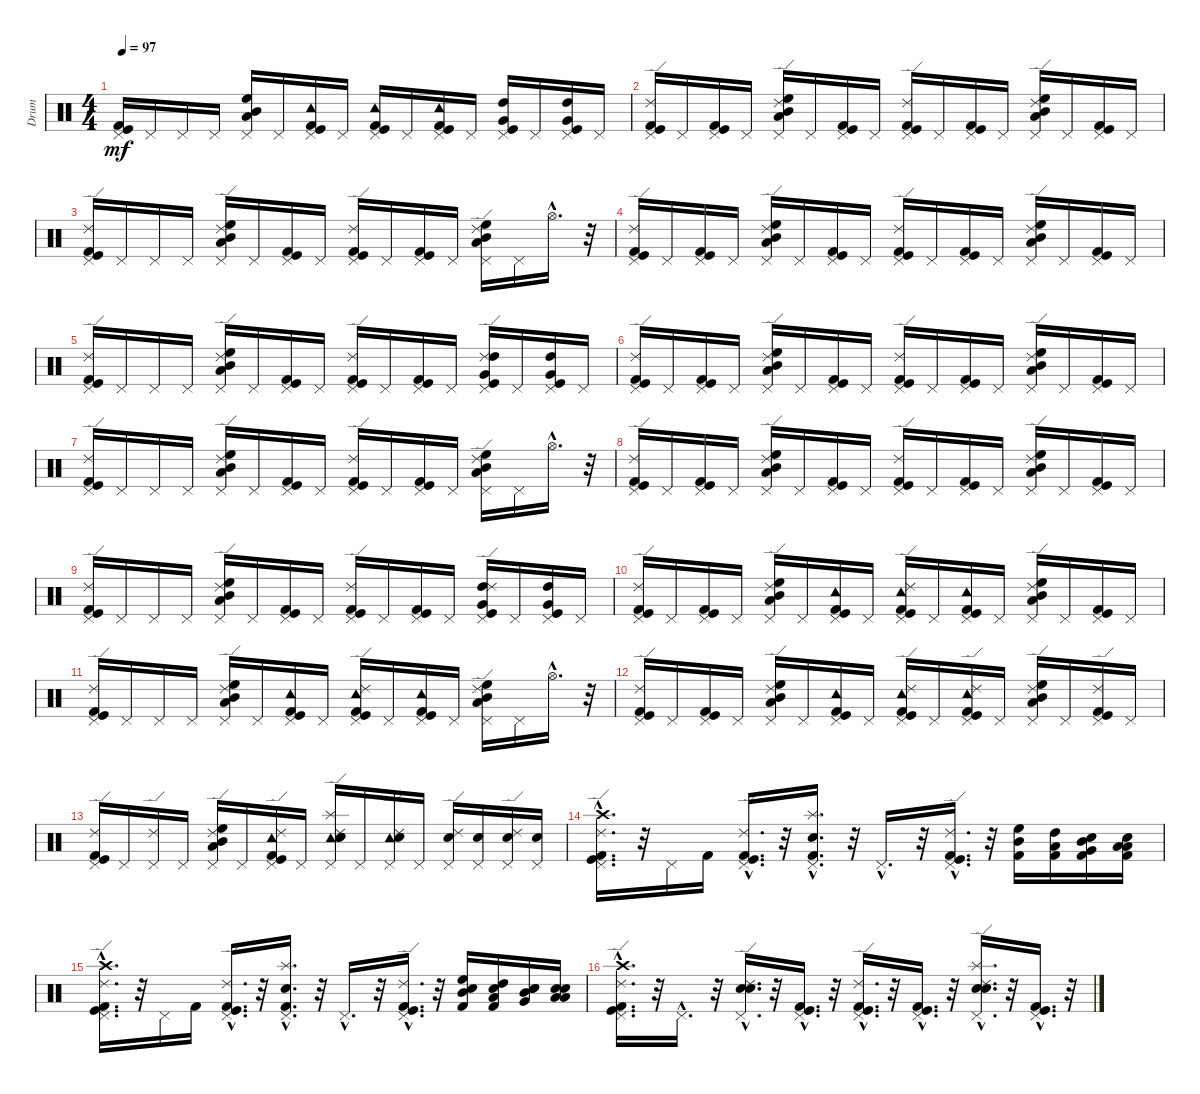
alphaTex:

\track ("Drum" "Drum") {instrument percussion}
\staff {score}
\articulation defaults
\ts (4 4)
\tempo 97
\clef neutral
\ks c
("Kick (hit) 2" "Kick (hit)" "Pedal Hi-Hat (hit)").16{dy mf} "Pedal Hi-Hat (hit)".16 "Pedal Hi-Hat (hit)".16 "Pedal Hi-Hat (hit)".16 ("Low Tom (hit)" "Mid Tom (hit)" "High Floor Tom (hit)" "Pedal Hi-Hat (hit)").16 "Pedal Hi-Hat (hit)".16 ("Kick (hit) 2" "Kick (hit)" "Pedal Hi-Hat (hit)" "Tambourine (hit)").16 "Pedal Hi-Hat (hit)".16 ("Kick (hit) 2" "Kick (hit)" "Pedal Hi-Hat (hit)" "Tambourine (hit)").16 "Pedal Hi-Hat (hit)".16 ("Kick (hit) 2" "Kick (hit)" "Pedal Hi-Hat (hit)" "Tambourine (hit)").16 "Pedal Hi-Hat (hit)".16 ("Pedal Hi-Hat (hit)" "High Tom (hit)" "Very Low Tom (hit)" "Kick (hit)").16 "Pedal Hi-Hat (hit)".16 ("Pedal Hi-Hat (hit)" "High Tom (hit)" "Very Low Tom (hit)" "Kick (hit)").16 "Pedal Hi-Hat (hit)".16 |
("Ride (edge) 2" "Kick (hit) 2" "Kick (hit)" "Pedal Hi-Hat (hit)").16 "Pedal Hi-Hat (hit)".16 ("Kick (hit) 2" "Kick (hit)" "Pedal Hi-Hat (hit)").16 "Pedal Hi-Hat (hit)".16 ("Ride (edge) 2" "Low Tom (hit)" "Mid Tom (hit)" "High Floor Tom (hit)" "Pedal Hi-Hat (hit)").16 "Pedal Hi-Hat (hit)".16 ("Kick (hit) 2" "Kick (hit)" "Pedal Hi-Hat (hit)").16 "Pedal Hi-Hat (hit)".16 ("Ride (edge) 2" "Kick (hit) 2" "Kick (hit)" "Pedal Hi-Hat (hit)").16 "Pedal Hi-Hat (hit)".16 ("Kick (hit) 2" "Kick (hit)" "Pedal Hi-Hat (hit)").16 "Pedal Hi-Hat (hit)".16 ("Ride (edge) 2" "Low Tom (hit)" "High Floor Tom (hit)" "Mid Tom (hit)" "Pedal Hi-Hat (hit)").16 "Pedal Hi-Hat (hit)".16 ("Kick (hit)" "Kick (hit) 2" "Pedal Hi-Hat (hit)").16 "Pedal Hi-Hat (hit)".16 |
("Ride (edge) 2" "Pedal Hi-Hat (hit)" "Kick (hit)" "Kick (hit) 2").16 "Pedal Hi-Hat (hit)".16 "Pedal Hi-Hat (hit)".16 "Pedal Hi-Hat (hit)".16 ("Ride (edge) 2" "Pedal Hi-Hat (hit)" "High Floor Tom (hit)" "Mid Tom (hit)" "Low Tom (hit)").16 "Pedal Hi-Hat (hit)".16 ("Pedal Hi-Hat (hit)" "Kick (hit)" "Kick (hit) 2").16 "Pedal Hi-Hat (hit)".16 ("Ride (edge) 2" "Pedal Hi-Hat (hit)" "Kick (hit)" "Kick (hit) 2").16 "Pedal Hi-Hat (hit)".16 ("Pedal Hi-Hat (hit)" "Kick (hit)" "Kick (hit) 2").16 "Pedal Hi-Hat (hit)".16 ("Ride (edge) 2" "Pedal Hi-Hat (hit)" "Mid Tom (hit)" "High Floor Tom (hit)" "Low Tom (hit)").16 "Pedal Hi-Hat (hit)".16 "Hi-Hat (open)"{hac}.16{d} r.32 |
("Ride (edge) 2" "Pedal Hi-Hat (hit)" "Kick (hit)" "Kick (hit) 2").16 "Pedal Hi-Hat (hit)".16 ("Pedal Hi-Hat (hit)" "Kick (hit)" "Kick (hit) 2").16 "Pedal Hi-Hat (hit)".16 ("Ride (edge) 2" "Pedal Hi-Hat (hit)" "High Floor Tom (hit)" "Mid Tom (hit)" "Low Tom (hit)").16 "Pedal Hi-Hat (hit)".16 ("Pedal Hi-Hat (hit)" "Kick (hit)" "Kick (hit) 2").16 "Pedal Hi-Hat (hit)".16 ("Ride (edge) 2" "Pedal Hi-Hat (hit)" "Kick (hit)" "Kick (hit) 2").16 "Pedal Hi-Hat (hit)".16 ("Pedal Hi-Hat (hit)" "Kick (hit)" "Kick (hit) 2").16 "Pedal Hi-Hat (hit)".16 ("Ride (edge) 2" "Pedal Hi-Hat (hit)" "Mid Tom (hit)" "High Floor Tom (hit)" "Low Tom (hit)").16 "Pedal Hi-Hat (hit)".16 ("Pedal Hi-Hat (hit)" "Kick (hit) 2" "Kick (hit)").16 "Pedal Hi-Hat (hit)".16 |
("Ride (edge) 2" "Kick (hit) 2" "Kick (hit)" "Pedal Hi-Hat (hit)").16 "Pedal Hi-Hat (hit)".16 "Pedal Hi-Hat (hit)".16 "Pedal Hi-Hat (hit)".16 ("Ride (edge) 2" "Low Tom (hit)" "Mid Tom (hit)" "High Floor Tom (hit)" "Pedal Hi-Hat (hit)").16 "Pedal Hi-Hat (hit)".16 ("Kick (hit) 2" "Kick (hit)" "Pedal Hi-Hat (hit)").16 "Pedal Hi-Hat (hit)".16 ("Ride (edge) 2" "Kick (hit) 2" "Kick (hit)" "Pedal Hi-Hat (hit)").16 "Pedal Hi-Hat (hit)".16 ("Kick (hit) 2" "Kick (hit)" "Pedal Hi-Hat (hit)").16 "Pedal Hi-Hat (hit)".16 ("Ride (edge) 2" "Pedal Hi-Hat (hit)" "High Tom (hit)" "Very Low Tom (hit)" "Kick (hit)").16 "Pedal Hi-Hat (hit)".16 ("Pedal Hi-Hat (hit)" "High Tom (hit)" "Very Low Tom (hit)" "Kick (hit)").16 "Pedal Hi-Hat (hit)".16 |
("Pedal Hi-Hat (hit)" "Kick (hit)" "Kick (hit) 2" "Ride (edge) 2").16 "Pedal Hi-Hat (hit)".16 ("Pedal Hi-Hat (hit)" "Kick (hit)" "Kick (hit) 2").16 "Pedal Hi-Hat (hit)".16 ("Pedal Hi-Hat (hit)" "High Floor Tom (hit)" "Mid Tom (hit)" "Low Tom (hit)" "Ride (edge) 2").16 "Pedal Hi-Hat (hit)".16 ("Pedal Hi-Hat (hit)" "Kick (hit)" "Kick (hit) 2").16 "Pedal Hi-Hat (hit)".16 ("Pedal Hi-Hat (hit)" "Kick (hit)" "Kick (hit) 2" "Ride (edge) 2").16 "Pedal Hi-Hat (hit)".16 ("Pedal Hi-Hat (hit)" "Kick (hit)" "Kick (hit) 2").16 "Pedal Hi-Hat (hit)".16 ("Ride (edge) 2" "Pedal Hi-Hat (hit)" "Mid Tom (hit)" "High Floor Tom (hit)" "Low Tom (hit)").16 "Pedal Hi-Hat (hit)".16 ("Pedal Hi-Hat (hit)" "Kick (hit) 2" "Kick (hit)").16 "Pedal Hi-Hat (hit)".16 |
("Kick (hit) 2" "Kick (hit)" "Pedal Hi-Hat (hit)" "Ride (edge) 2").16 "Pedal Hi-Hat (hit)".16 "Pedal Hi-Hat (hit)".16 "Pedal Hi-Hat (hit)".16 ("Low Tom (hit)" "Mid Tom (hit)" "High Floor Tom (hit)" "Pedal Hi-Hat (hit)" "Ride (edge) 2").16 "Pedal Hi-Hat (hit)".16 ("Kick (hit) 2" "Kick (hit)" "Pedal Hi-Hat (hit)").16 "Pedal Hi-Hat (hit)".16 ("Kick (hit) 2" "Kick (hit)" "Pedal Hi-Hat (hit)" "Ride (edge) 2").16 "Pedal Hi-Hat (hit)".16 ("Kick (hit) 2" "Kick (hit)" "Pedal Hi-Hat (hit)").16 "Pedal Hi-Hat (hit)".16 ("Low Tom (hit)" "High Floor Tom (hit)" "Mid Tom (hit)" "Pedal Hi-Hat (hit)" "Ride (edge) 2").16 "Pedal Hi-Hat (hit)".16 "Hi-Hat (open)"{hac}.16{d} r.32 |
("Kick (hit) 2" "Kick (hit)" "Pedal Hi-Hat (hit)" "Ride (edge) 2").16 "Pedal Hi-Hat (hit)".16 ("Kick (hit) 2" "Kick (hit)" "Pedal Hi-Hat (hit)").16 "Pedal Hi-Hat (hit)".16 ("Low Tom (hit)" "Mid Tom (hit)" "High Floor Tom (hit)" "Pedal Hi-Hat (hit)" "Ride (edge) 2").16 "Pedal Hi-Hat (hit)".16 ("Kick (hit) 2" "Kick (hit)" "Pedal Hi-Hat (hit)").16 "Pedal Hi-Hat (hit)".16 ("Kick (hit) 2" "Kick (hit)" "Pedal Hi-Hat (hit)" "Ride (edge) 2").16 "Pedal Hi-Hat (hit)".16 ("Kick (hit) 2" "Kick (hit)" "Pedal Hi-Hat (hit)").16 "Pedal Hi-Hat (hit)".16 ("Low Tom (hit)" "High Floor Tom (hit)" "Mid Tom (hit)" "Pedal Hi-Hat (hit)" "Ride (edge) 2").16 "Pedal Hi-Hat (hit)".16 ("Kick (hit)" "Kick (hit) 2" "Pedal Hi-Hat (hit)").16 "Pedal Hi-Hat (hit)".16 |
("Pedal Hi-Hat (hit)" "Kick (hit)" "Kick (hit) 2" "Ride (edge) 2").16 "Pedal Hi-Hat (hit)".16 "Pedal Hi-Hat (hit)".16 "Pedal Hi-Hat (hit)".16 ("Pedal Hi-Hat (hit)" "High Floor Tom (hit)" "Mid Tom (hit)" "Low Tom (hit)" "Ride (edge) 2").16 "Pedal Hi-Hat (hit)".16 ("Pedal Hi-Hat (hit)" "Kick (hit)" "Kick (hit) 2").16 "Pedal Hi-Hat (hit)".16 ("Pedal Hi-Hat (hit)" "Kick (hit)" "Kick (hit) 2" "Ride (edge) 2").16 "Pedal Hi-Hat (hit)".16 ("Pedal Hi-Hat (hit)" "Kick (hit)" "Kick (hit) 2").16 "Pedal Hi-Hat (hit)".16 ("Kick (hit)" "Very Low Tom (hit)" "High Tom (hit)" "Pedal Hi-Hat (hit)" "Ride (edge) 2").16 "Pedal Hi-Hat (hit)".16 ("Kick (hit)" "Very Low Tom (hit)" "High Tom (hit)" "Pedal Hi-Hat (hit)").16 "Pedal Hi-Hat (hit)".16 |
("Ride (edge) 2" "Kick (hit) 2" "Kick (hit)" "Pedal Hi-Hat (hit)").16 "Pedal Hi-Hat (hit)".16 ("Kick (hit) 2" "Kick (hit)" "Pedal Hi-Hat (hit)").16 "Pedal Hi-Hat (hit)".16 ("Ride (edge) 2" "Low Tom (hit)" "Mid Tom (hit)" "High Floor Tom (hit)" "Pedal Hi-Hat (hit)").16 "Pedal Hi-Hat (hit)".16 ("Tambourine (hit)" "Kick (hit) 2" "Kick (hit)" "Pedal Hi-Hat (hit)").16 "Pedal Hi-Hat (hit)".16 ("Ride (edge) 2" "Tambourine (hit)" "Kick (hit) 2" "Kick (hit)" "Pedal Hi-Hat (hit)").16 "Pedal Hi-Hat (hit)".16 ("Tambourine (hit)" "Kick (hit) 2" "Kick (hit)" "Pedal Hi-Hat (hit)").16 "Pedal Hi-Hat (hit)".16 ("Ride (edge) 2" "Low Tom (hit)" "High Floor Tom (hit)" "Mid Tom (hit)" "Pedal Hi-Hat (hit)").16 "Pedal Hi-Hat (hit)".16 ("Kick (hit)" "Kick (hit) 2" "Pedal Hi-Hat (hit)").16 "Pedal Hi-Hat (hit)".16 |
("Ride (edge) 2" "Pedal Hi-Hat (hit)" "Kick (hit)" "Kick (hit) 2").16 "Pedal Hi-Hat (hit)".16 "Pedal Hi-Hat (hit)".16 "Pedal Hi-Hat (hit)".16 ("Ride (edge) 2" "Pedal Hi-Hat (hit)" "High Floor Tom (hit)" "Mid Tom (hit)" "Low Tom (hit)").16 "Pedal Hi-Hat (hit)".16 ("Tambourine (hit)" "Pedal Hi-Hat (hit)" "Kick (hit)" "Kick (hit) 2").16 "Pedal Hi-Hat (hit)".16 ("Ride (edge) 2" "Tambourine (hit)" "Pedal Hi-Hat (hit)" "Kick (hit)" "Kick (hit) 2").16 "Pedal Hi-Hat (hit)".16 ("Tambourine (hit)" "Pedal Hi-Hat (hit)" "Kick (hit)" "Kick (hit) 2").16 "Pedal Hi-Hat (hit)".16 ("Ride (edge) 2" "Pedal Hi-Hat (hit)" "Mid Tom (hit)" "High Floor Tom (hit)" "Low Tom (hit)").16 "Pedal Hi-Hat (hit)".16 "Hi-Hat (open)"{hac}.16{d} r.32 |
("Ride (edge) 2" "Pedal Hi-Hat (hit)" "Kick (hit)" "Kick (hit) 2").16 "Pedal Hi-Hat (hit)".16 ("Pedal Hi-Hat (hit)" "Kick (hit)" "Kick (hit) 2").16 "Pedal Hi-Hat (hit)".16 ("Ride (edge) 2" "Pedal Hi-Hat (hit)" "High Floor Tom (hit)" "Mid Tom (hit)" "Low Tom (hit)").16 "Pedal Hi-Hat (hit)".16 ("Pedal Hi-Hat (hit)" "Kick (hit)" "Kick (hit) 2" "Tambourine (hit)").16 "Pedal Hi-Hat (hit)".16 ("Ride (edge) 2" "Pedal Hi-Hat (hit)" "Kick (hit)" "Kick (hit) 2" "Tambourine (hit)").16 "Pedal Hi-Hat (hit)".16 ("Ride (edge) 2" "Pedal Hi-Hat (hit)" "Kick (hit)" "Kick (hit) 2" "Tambourine (hit)").16 "Pedal Hi-Hat (hit)".16 ("Ride (edge) 2" "Pedal Hi-Hat (hit)" "Mid Tom (hit)" "High Floor Tom (hit)" "Low Tom (hit)").16 "Pedal Hi-Hat (hit)".16 ("Ride (edge) 2" "Pedal Hi-Hat (hit)" "Kick (hit) 2" "Kick (hit)").16 "Pedal Hi-Hat (hit)".16 |
("Kick (hit) 2" "Kick (hit)" "Pedal Hi-Hat (hit)" "Ride (edge) 2").16 "Pedal Hi-Hat (hit)".16 ("Pedal Hi-Hat (hit)" "Ride (edge) 2").16 "Pedal Hi-Hat (hit)".16 ("Low Tom (hit)" "Mid Tom (hit)" "High Floor Tom (hit)" "Pedal Hi-Hat (hit)" "Ride (edge) 2").16 "Pedal Hi-Hat (hit)".16 ("Kick (hit) 2" "Kick (hit)" "Pedal Hi-Hat (hit)" "Tambourine (hit)" "Ride (edge) 2").16 "Pedal Hi-Hat (hit)".16 ("Pedal Hi-Hat (hit)" "Tambourine (hit)" "Ride (edge) 2" "Splash (hit)" "Snare (hit) 2" "Electric Snare (hit)").16 "Pedal Hi-Hat (hit)".16 ("Pedal Hi-Hat (hit)" "Tambourine (hit)" "Snare (hit) 2" "Ride (edge) 2").16 "Pedal Hi-Hat (hit)".16 ("Pedal Hi-Hat (hit)" "Snare (hit) 2" "Ride (edge) 2").16 ("Pedal Hi-Hat (hit)" "Snare (hit) 2").16 ("Pedal Hi-Hat (hit)" "Snare (hit) 2" "Ride (edge) 2").16 ("Pedal Hi-Hat (hit)" "Snare (hit) 2").16 |
("Kick (hit)"{hac} "Crash high (hit)"{hac} "Kick (hit) 2"{hac} "Ride (edge) 2"{hac} "Pedal Hi-Hat (hit)"{hac}).16{d} r.32 "Pedal Hi-Hat (hit)".16 "Kick (hit) 2".16 ("Ride (edge) 2"{hac} "Pedal Hi-Hat (hit)"{hac} "Kick (hit) 2"{hac} "Kick (hit)"{hac}).16{d} r.32 ("Pedal Hi-Hat (hit)"{hac} "Splash (hit)"{hac} "Snare (hit) 2"{hac} "Kick (hit) 2"{hac}).16{d} r.32 "Pedal Hi-Hat (hit)"{hac}.16{d} r.32 ("Kick (hit)"{hac} "Pedal Hi-Hat (hit)"{hac} "Kick (hit) 2"{hac} "Ride (edge) 2"{hac}).16{d} r.32 ("High Floor Tom (hit)" "Mid Tom (hit)" "Kick (hit) 2").16 ("High Tom (hit)" "Low Tom (hit)" "Kick (hit) 2").16 ("Mid Tom (hit)" "Very Low Tom (hit)" "Kick (hit) 2" "Electric Snare (hit)").16 ("Low Tom (hit)" "Low Floor Tom (hit)" "Kick (hit) 2" "Electric Snare (hit)").16 |
("Pedal Hi-Hat (hit)"{hac} "Ride (edge) 2"{hac} "Kick (hit) 2"{hac} "Crash high (hit)"{hac} "Kick (hit)"{hac}).16{d} r.32 "Pedal Hi-Hat (hit)".16 "Kick (hit) 2".16 ("Kick (hit)"{hac} "Kick (hit) 2"{hac} "Pedal Hi-Hat (hit)"{hac} "Ride (edge) 2"{hac}).16{d} r.32 ("Kick (hit) 2"{hac} "Snare (hit) 2"{hac} "Splash (hit)"{hac} "Pedal Hi-Hat (hit)"{hac}).16{d} r.32 "Pedal Hi-Hat (hit)"{hac}.16{d} r.32 ("Kick (hit) 2"{hac} "Pedal Hi-Hat (hit)"{hac} "Kick (hit)"{hac} "Ride (edge) 2"{hac}).16{d} r.32 ("Kick (hit) 2" "Mid Tom (hit)" "High Floor Tom (hit)" "Electric Snare (hit)").16 ("Kick (hit) 2" "Low Tom (hit)" "High Tom (hit)" "Electric Snare (hit)").16 ("Electric Snare (hit)" "Snare (hit) 2" "Very Low Tom (hit)" "Mid Tom (hit)").16 ("Electric Snare (hit)" "Snare (hit) 2" "Low Floor Tom (hit)" "Low Tom (hit)").16 |
("Pedal Hi-Hat (hit)"{hac} "Ride (edge) 2"{hac} "Kick (hit) 2"{hac} "Kick (hit)"{hac} "Crash high (hit)"{hac}).16{d} r.32 "Pedal Hi-Hat (hit)"{hac}.16{d} r.32 ("Pedal Hi-Hat (hit)"{hac} "Ride (edge) 2"{hac} "Snare (hit) 2"{hac} "Electric Snare (hit)"{hac}).16{d} r.32 ("Pedal Hi-Hat (hit)"{hac} "Kick (hit)"{hac} "Kick (hit) 2"{hac}).16{d} r.32 ("Pedal Hi-Hat (hit)"{hac} "Ride (edge) 2"{hac} "Kick (hit)"{hac} "Kick (hit) 2"{hac}).16{d} r.32 ("Pedal Hi-Hat (hit)"{hac} "Kick (hit)"{hac} "Kick (hit) 2"{hac}).16{d} r.32 ("Pedal Hi-Hat (hit)"{hac} "Ride (edge) 2"{hac} "Snare (hit) 2"{hac} "Electric Snare (hit)"{hac} "Splash (hit)"{hac}).16{d} r.32 ("Kick (hit) 2"{hac} "Pedal Hi-Hat (hit)"{hac} "Kick (hit)"{hac}).16{d} r.32
